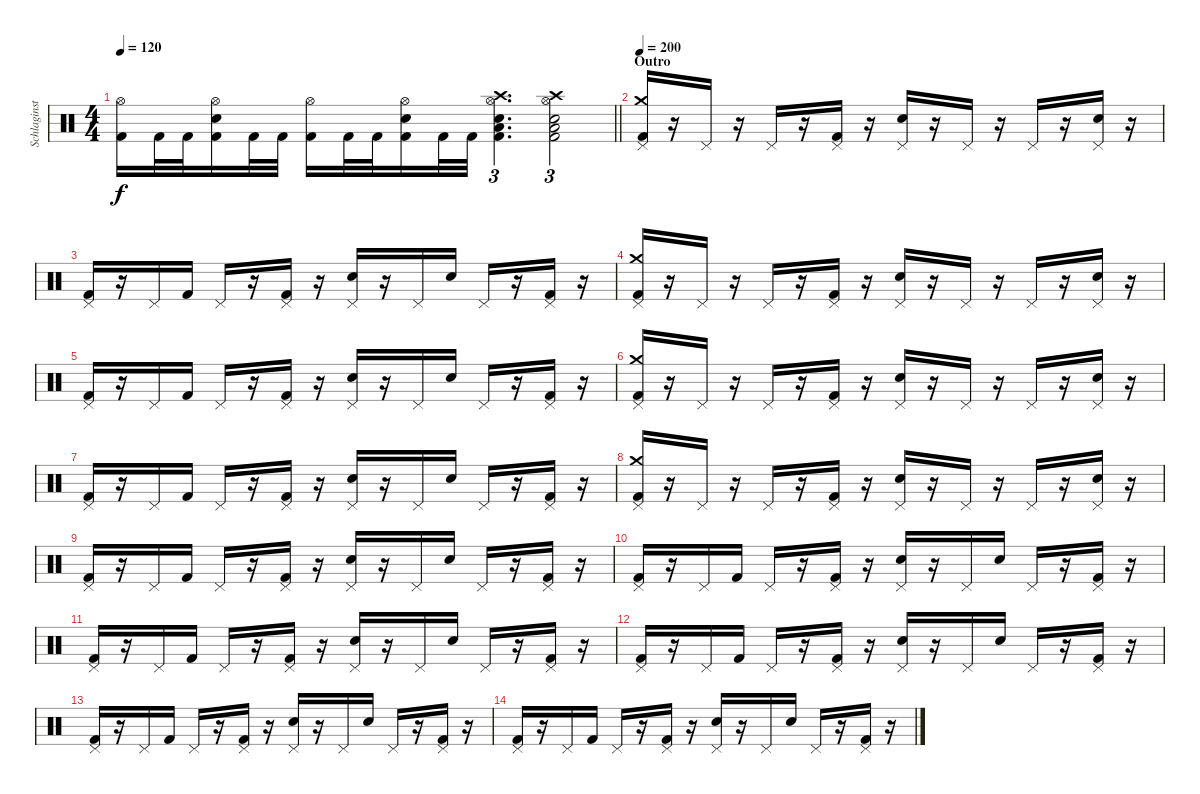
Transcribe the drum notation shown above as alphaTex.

\track ("Schlaginstrumente - Auswahl" "Schlaginst") {instrument percussion}
\staff {score}
\articulation defaults
\ts (4 4)
\tempo 120
\clef neutral
\barLineRight lightlight
\ks c
("Hi-Hat (open)" "Kick (hit) 2").16{dy f} "Kick (hit) 2".32 "Kick (hit) 2".32 ("Hi-Hat (open)" "Electric Snare (hit)" "Kick (hit) 2").16 "Kick (hit) 2".32 "Kick (hit) 2".32 ("Hi-Hat (open)" "Kick (hit) 2").16 "Kick (hit) 2".32 "Kick (hit) 2".32 ("Hi-Hat (open)" "Electric Snare (hit)" "Kick (hit) 2").16 "Kick (hit) 2".32 "Kick (hit) 2".32 ("Low Floor Tom (hit)" "Kick (hit) 2" "Snare (hit)" "Crash high (hit)" "Hi-Hat (open)").4{d tu (3 2)} ("Low Floor Tom (hit)" "Kick (hit) 2" "Snare (hit)" "Crash high (hit)" "Hi-Hat (open)").2{tu (3 2)} |
\section ("" "Outro")
\tempo 200
("Crash medium (hit)" "Pedal Hi-Hat (hit)" "Kick (hit) 2").16 r.16 "Pedal Hi-Hat (hit)".16 r.16 "Pedal Hi-Hat (hit)".16 r.16 ("Pedal Hi-Hat (hit)" "Kick (hit) 2").16 r.16 ("Pedal Hi-Hat (hit)" "Electric Snare (hit)").16 r.16 "Pedal Hi-Hat (hit)".16 r.16 "Pedal Hi-Hat (hit)".16 r.16 ("Pedal Hi-Hat (hit)" "Electric Snare (hit)").16 r.16 |
("Pedal Hi-Hat (hit)" "Kick (hit) 2").16 r.16 "Pedal Hi-Hat (hit)".16 "Kick (hit) 2".16 "Pedal Hi-Hat (hit)".16 r.16 ("Pedal Hi-Hat (hit)" "Kick (hit) 2").16 r.16 ("Pedal Hi-Hat (hit)" "Electric Snare (hit)").16 r.16 "Pedal Hi-Hat (hit)".16 "Electric Snare (hit)".16 "Pedal Hi-Hat (hit)".16 r.16 ("Pedal Hi-Hat (hit)" "Kick (hit) 2").16 r.16 |
("Crash medium (hit)" "Pedal Hi-Hat (hit)" "Kick (hit) 2").16 r.16 "Pedal Hi-Hat (hit)".16 r.16 "Pedal Hi-Hat (hit)".16 r.16 ("Pedal Hi-Hat (hit)" "Kick (hit) 2").16 r.16 ("Pedal Hi-Hat (hit)" "Electric Snare (hit)").16 r.16 "Pedal Hi-Hat (hit)".16 r.16 "Pedal Hi-Hat (hit)".16 r.16 ("Pedal Hi-Hat (hit)" "Electric Snare (hit)").16 r.16 |
("Pedal Hi-Hat (hit)" "Kick (hit) 2").16 r.16 "Pedal Hi-Hat (hit)".16 "Kick (hit) 2".16 "Pedal Hi-Hat (hit)".16 r.16 ("Pedal Hi-Hat (hit)" "Kick (hit) 2").16 r.16 ("Pedal Hi-Hat (hit)" "Electric Snare (hit)").16 r.16 "Pedal Hi-Hat (hit)".16 "Electric Snare (hit)".16 "Pedal Hi-Hat (hit)".16 r.16 ("Pedal Hi-Hat (hit)" "Kick (hit) 2").16 r.16 |
("Crash medium (hit)" "Pedal Hi-Hat (hit)" "Kick (hit) 2").16 r.16 "Pedal Hi-Hat (hit)".16 r.16 "Pedal Hi-Hat (hit)".16 r.16 ("Pedal Hi-Hat (hit)" "Kick (hit) 2").16 r.16 ("Pedal Hi-Hat (hit)" "Electric Snare (hit)").16 r.16 "Pedal Hi-Hat (hit)".16 r.16 "Pedal Hi-Hat (hit)".16 r.16 ("Pedal Hi-Hat (hit)" "Electric Snare (hit)").16 r.16 |
("Pedal Hi-Hat (hit)" "Kick (hit) 2").16 r.16 "Pedal Hi-Hat (hit)".16 "Kick (hit) 2".16 "Pedal Hi-Hat (hit)".16 r.16 ("Pedal Hi-Hat (hit)" "Kick (hit) 2").16 r.16 ("Pedal Hi-Hat (hit)" "Electric Snare (hit)").16 r.16 "Pedal Hi-Hat (hit)".16 "Electric Snare (hit)".16 "Pedal Hi-Hat (hit)".16 r.16 ("Pedal Hi-Hat (hit)" "Kick (hit) 2").16 r.16 |
("Crash medium (hit)" "Pedal Hi-Hat (hit)" "Kick (hit) 2").16 r.16 "Pedal Hi-Hat (hit)".16 r.16 "Pedal Hi-Hat (hit)".16 r.16 ("Pedal Hi-Hat (hit)" "Kick (hit) 2").16 r.16 ("Pedal Hi-Hat (hit)" "Electric Snare (hit)").16 r.16 "Pedal Hi-Hat (hit)".16 r.16 "Pedal Hi-Hat (hit)".16 r.16 ("Pedal Hi-Hat (hit)" "Electric Snare (hit)").16 r.16 |
("Pedal Hi-Hat (hit)" "Kick (hit) 2").16 r.16 "Pedal Hi-Hat (hit)".16 "Kick (hit) 2".16 "Pedal Hi-Hat (hit)".16 r.16 ("Pedal Hi-Hat (hit)" "Kick (hit) 2").16 r.16 ("Pedal Hi-Hat (hit)" "Electric Snare (hit)").16 r.16 "Pedal Hi-Hat (hit)".16 "Electric Snare (hit)".16 "Pedal Hi-Hat (hit)".16 r.16 ("Pedal Hi-Hat (hit)" "Kick (hit) 2").16 r.16 |
("Pedal Hi-Hat (hit)" "Kick (hit) 2").16 r.16 "Pedal Hi-Hat (hit)".16 "Kick (hit) 2".16 "Pedal Hi-Hat (hit)".16 r.16 ("Pedal Hi-Hat (hit)" "Kick (hit) 2").16 r.16 ("Pedal Hi-Hat (hit)" "Electric Snare (hit)").16 r.16 "Pedal Hi-Hat (hit)".16 "Electric Snare (hit)".16 "Pedal Hi-Hat (hit)".16 r.16 ("Pedal Hi-Hat (hit)" "Kick (hit) 2").16 r.16 |
("Pedal Hi-Hat (hit)" "Kick (hit) 2").16 r.16 "Pedal Hi-Hat (hit)".16 "Kick (hit) 2".16 "Pedal Hi-Hat (hit)".16 r.16 ("Pedal Hi-Hat (hit)" "Kick (hit) 2").16 r.16 ("Pedal Hi-Hat (hit)" "Electric Snare (hit)").16 r.16 "Pedal Hi-Hat (hit)".16 "Electric Snare (hit)".16 "Pedal Hi-Hat (hit)".16 r.16 ("Pedal Hi-Hat (hit)" "Kick (hit) 2").16 r.16 |
("Pedal Hi-Hat (hit)" "Kick (hit) 2").16 r.16 "Pedal Hi-Hat (hit)".16 "Kick (hit) 2".16 "Pedal Hi-Hat (hit)".16 r.16 ("Pedal Hi-Hat (hit)" "Kick (hit) 2").16 r.16 ("Pedal Hi-Hat (hit)" "Electric Snare (hit)").16 r.16 "Pedal Hi-Hat (hit)".16 "Electric Snare (hit)".16 "Pedal Hi-Hat (hit)".16 r.16 ("Pedal Hi-Hat (hit)" "Kick (hit) 2").16 r.16 |
("Pedal Hi-Hat (hit)" "Kick (hit) 2").16 r.16 "Pedal Hi-Hat (hit)".16 "Kick (hit) 2".16 "Pedal Hi-Hat (hit)".16 r.16 ("Pedal Hi-Hat (hit)" "Kick (hit) 2").16 r.16 ("Pedal Hi-Hat (hit)" "Electric Snare (hit)").16 r.16 "Pedal Hi-Hat (hit)".16 "Electric Snare (hit)".16 "Pedal Hi-Hat (hit)".16 r.16 ("Pedal Hi-Hat (hit)" "Kick (hit) 2").16 r.16 |
("Pedal Hi-Hat (hit)" "Kick (hit) 2").16 r.16 "Pedal Hi-Hat (hit)".16 "Kick (hit) 2".16 "Pedal Hi-Hat (hit)".16 r.16 ("Pedal Hi-Hat (hit)" "Kick (hit) 2").16 r.16 ("Pedal Hi-Hat (hit)" "Electric Snare (hit)").16 r.16 "Pedal Hi-Hat (hit)".16 "Electric Snare (hit)".16 "Pedal Hi-Hat (hit)".16 r.16 ("Pedal Hi-Hat (hit)" "Kick (hit) 2").16 r.16
